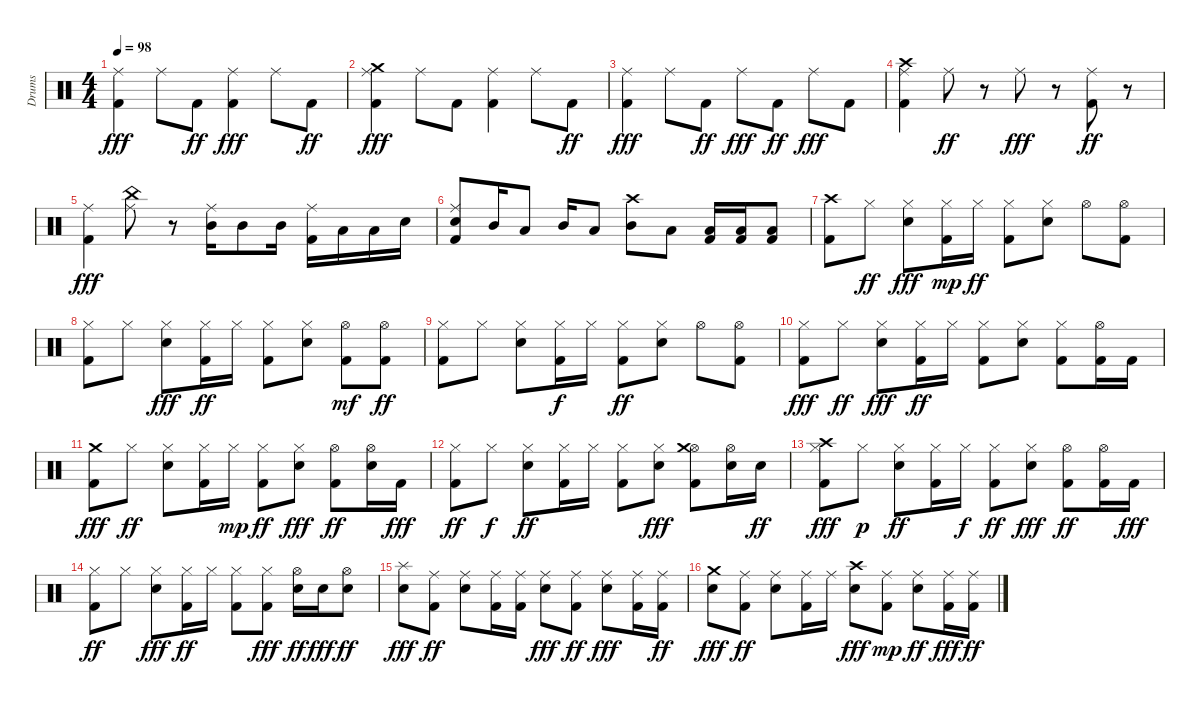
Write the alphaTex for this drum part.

\track ("Drums" "Drums") {instrument percussion}
\staff {score}
\articulation defaults
\ts (4 4)
\tempo 98
\clef neutral
\ks c
("Kick (hit) 2" "Ride (middle)").4{dy fff} "Ride (middle)".8 "Kick (hit) 2".8{dy ff} ("Kick (hit) 2" "Ride (middle)").4{dy fff} "Ride (middle)".8 "Kick (hit) 2".8{dy ff} |
("Kick (hit) 2" "Ride (middle)" "Crash medium (hit)").4{dy fff} "Ride (middle)".8 "Kick (hit) 2".8 ("Kick (hit) 2" "Ride (middle)").4 "Ride (middle)".8 "Kick (hit) 2".8{dy ff} |
("Kick (hit) 2" "Ride (middle)").4{dy fff} "Ride (middle)".8 "Kick (hit) 2".8{dy ff} "Ride (middle)".8{dy fff} "Kick (hit) 2".8{dy ff} "Ride (middle)".8{dy fff} "Kick (hit) 2".8 |
("Crash high (hit)" "Kick (hit) 2" "Ride (middle)").4 "Ride (middle)".8{dy ff} r.8 "Ride (middle)".8{dy fff} r.8 ("Kick (hit) 2" "Ride (middle)").8{dy ff} r.8 |
("Kick (hit) 2" "Ride (middle)").4{dy fff} ("Ride (middle)" "China (hit)").8 r.8 ("Mid Tom (hit)" "Ride (middle)").16 "Mid Tom (hit)".8 "Mid Tom (hit)".16 ("Kick (hit) 2" "Ride (middle)").16 "Low Tom (hit)".16 "Low Floor Tom (hit)".16 "Snare (hit) 2".16 |
("Kick (hit) 2" "Snare (hit) 2" "Ride (middle)").8 "Mid Tom (hit)".16 "Low Tom (hit)".8 "Mid Tom (hit)".16 "Low Tom (hit)".8 ("Mid Tom (hit)" "Crash high (hit)").8 "Low Tom (hit)".8 ("Kick (hit) 2" "Low Tom (hit)").16 ("Kick (hit) 2" "Low Floor Tom (hit)").16 ("Kick (hit) 2" "Low Floor Tom (hit)").8 |
("Kick (hit) 2" "Crash high (hit)").8 "Hi-Hat (closed)".8{dy ff} ("Snare (hit) 2" "Hi-Hat (closed)").8{dy fff} ("Kick (hit) 2" "Hi-Hat (closed)").16{dy mp} "Hi-Hat (closed)".16{dy ff} ("Kick (hit) 2" "Hi-Hat (closed)").8 ("Snare (hit) 2" "Hi-Hat (closed)").8 "Hi-Hat (open)".8 ("Kick (hit) 2" "Hi-Hat (open)").8 |
("Kick (hit) 2" "Hi-Hat (closed)").8 "Hi-Hat (closed)".8 ("Snare (hit) 2" "Hi-Hat (closed)").8{dy fff} ("Kick (hit) 2" "Hi-Hat (closed)").16{dy ff} "Hi-Hat (closed)".16 ("Kick (hit) 2" "Hi-Hat (closed)").8 ("Snare (hit) 2" "Hi-Hat (closed)").8 ("Kick (hit) 2" "Hi-Hat (open)").8{dy mf} ("Kick (hit) 2" "Hi-Hat (open)").8{dy ff} |
("Kick (hit) 2" "Hi-Hat (closed)").8 "Hi-Hat (closed)".8 ("Snare (hit) 2" "Hi-Hat (closed)").8 ("Kick (hit) 2" "Hi-Hat (closed)").16{dy f} "Hi-Hat (closed)".16 ("Kick (hit) 2" "Hi-Hat (closed)").8{dy ff} ("Snare (hit) 2" "Hi-Hat (closed)").8 "Hi-Hat (open)".8 ("Kick (hit) 2" "Hi-Hat (open)").8 |
("Kick (hit) 2" "Hi-Hat (closed)").8{dy fff} "Hi-Hat (closed)".8{dy ff} ("Snare (hit) 2" "Hi-Hat (closed)").8{dy fff} ("Kick (hit) 2" "Hi-Hat (closed)").16{dy ff} "Hi-Hat (closed)".16 ("Kick (hit) 2" "Hi-Hat (closed)").8 ("Snare (hit) 2" "Hi-Hat (closed)").8 ("Kick (hit) 2" "Hi-Hat (closed)").8 ("Kick (hit) 2" "Hi-Hat (open)").16 "Kick (hit) 2".16 |
("Kick (hit) 2" "Crash medium (hit)").8{dy fff} "Hi-Hat (closed)".8{dy ff} ("Snare (hit) 2" "Hi-Hat (closed)").8 ("Kick (hit) 2" "Hi-Hat (closed)").16 "Hi-Hat (closed)".16{dy mp} ("Kick (hit) 2" "Hi-Hat (closed)").8{dy ff} ("Snare (hit) 2" "Hi-Hat (closed)").8{dy fff} ("Kick (hit) 2" "Hi-Hat (open)").8{dy ff} ("Snare (hit) 2" "Hi-Hat (open)").16 "Kick (hit) 2".16{dy fff} |
("Kick (hit) 2" "Hi-Hat (closed)").8{dy ff} "Hi-Hat (closed)".8{dy f} ("Snare (hit) 2" "Hi-Hat (closed)").8{dy ff} ("Kick (hit) 2" "Hi-Hat (closed)").16 "Hi-Hat (closed)".16 ("Kick (hit) 2" "Hi-Hat (closed)").8 ("Snare (hit) 2" "Hi-Hat (closed)").8{dy fff} ("Kick (hit) 2" "Hi-Hat (open)" "Crash medium (hit)").8 ("Snare (hit) 2" "Hi-Hat (open)").16 "Snare (hit) 2".16{dy ff} |
("Kick (hit) 2" "Hi-Hat (closed)" "Crash high (hit)").8{dy fff} "Hi-Hat (closed)".8{dy p} ("Snare (hit) 2" "Hi-Hat (closed)").8{dy ff} ("Kick (hit) 2" "Hi-Hat (closed)").16 "Hi-Hat (closed)".16{dy f} ("Kick (hit) 2" "Hi-Hat (closed)").8{dy ff} ("Snare (hit) 2" "Hi-Hat (closed)").8{dy fff} ("Kick (hit) 2" "Hi-Hat (open)").8{dy ff} ("Kick (hit) 2" "Hi-Hat (open)").16 "Kick (hit) 2".16{dy fff} |
("Kick (hit) 2" "Hi-Hat (closed)").8{dy ff} "Hi-Hat (closed)".8 ("Snare (hit) 2" "Hi-Hat (closed)").8{dy fff} ("Kick (hit) 2" "Hi-Hat (closed)").16{dy ff} "Hi-Hat (closed)".16 ("Kick (hit) 2" "Hi-Hat (closed)").8 ("Kick (hit) 2" "Hi-Hat (closed)").8{dy fff} ("Snare (hit) 2" "Hi-Hat (open)").16{dy ff} "Snare (hit) 2".16{dy fff} ("Snare (hit) 2" "Hi-Hat (open)").8{dy ff} |
("Snare (hit) 2" "Splash (hit)").8{dy fff} ("Kick (hit) 2" "Ride (middle)").8{dy ff} ("Snare (hit) 2" "Ride (middle)").8 ("Kick (hit) 2" "Ride (middle)").16 ("Kick (hit) 2" "Ride (middle)").16 ("Snare (hit) 2" "Ride (middle)").8{dy fff} ("Kick (hit) 2" "Ride (middle)").8{dy ff} ("Snare (hit) 2" "Ride (middle)").8{dy fff} ("Kick (hit) 2" "Ride (middle)").16 ("Kick (hit) 2" "Ride (middle)").16{dy ff} |
("Snare (hit) 2" "Crash medium (hit)").8{dy fff} ("Kick (hit) 2" "Ride (middle)").8{dy ff} ("Snare (hit) 2" "Ride (middle)").8 ("Kick (hit) 2" "Ride (middle)").16 "Ride (middle)".16 ("Snare (hit) 2" "Crash high (hit)").8{dy fff} ("Kick (hit) 2" "Ride (middle)").8{dy mp} ("Snare (hit) 2" "Ride (middle)").8{dy ff} ("Kick (hit) 2" "Ride (middle)").16{dy fff} ("Kick (hit) 2" "Ride (middle)").16{dy ff}
